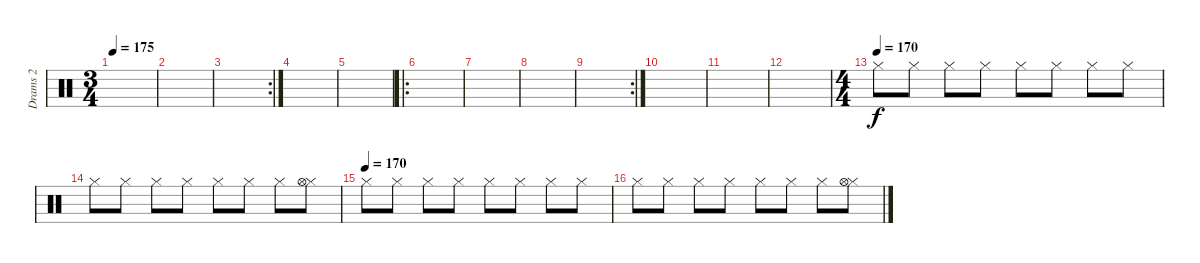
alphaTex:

\track ("Drams 2" "Drams 2") {instrument percussion}
\staff {score}
\articulation defaults
\ts (3 4)
\tempo 175
\clef neutral
\ks c
|
|
\rc 2
|
|
|
\ro
|
|
|
\rc 2
|
|
|
|
\ts (4 4)
\tempo (170)
"Hi-Hat (closed)".8{dy f} "Hi-Hat (closed)".8 "Hi-Hat (closed)".8 "Hi-Hat (closed)".8 "Hi-Hat (closed)".8 "Hi-Hat (closed)".8 "Hi-Hat (closed)".8 "Hi-Hat (closed)".8 |
"Hi-Hat (closed)".8 "Hi-Hat (closed)".8 "Hi-Hat (closed)".8 "Hi-Hat (closed)".8 "Hi-Hat (closed)".8 "Hi-Hat (closed)".8 "Hi-Hat (closed)".8 ("Hi-Hat (closed)" "Hi-Hat (open)").8 |
\tempo (170)
"Hi-Hat (closed)".8 "Hi-Hat (closed)".8 "Hi-Hat (closed)".8 "Hi-Hat (closed)".8 "Hi-Hat (closed)".8 "Hi-Hat (closed)".8 "Hi-Hat (closed)".8 "Hi-Hat (closed)".8 |
"Hi-Hat (closed)".8 "Hi-Hat (closed)".8 "Hi-Hat (closed)".8 "Hi-Hat (closed)".8 "Hi-Hat (closed)".8 "Hi-Hat (closed)".8 "Hi-Hat (closed)".8 ("Hi-Hat (closed)" "Hi-Hat (open)").8
